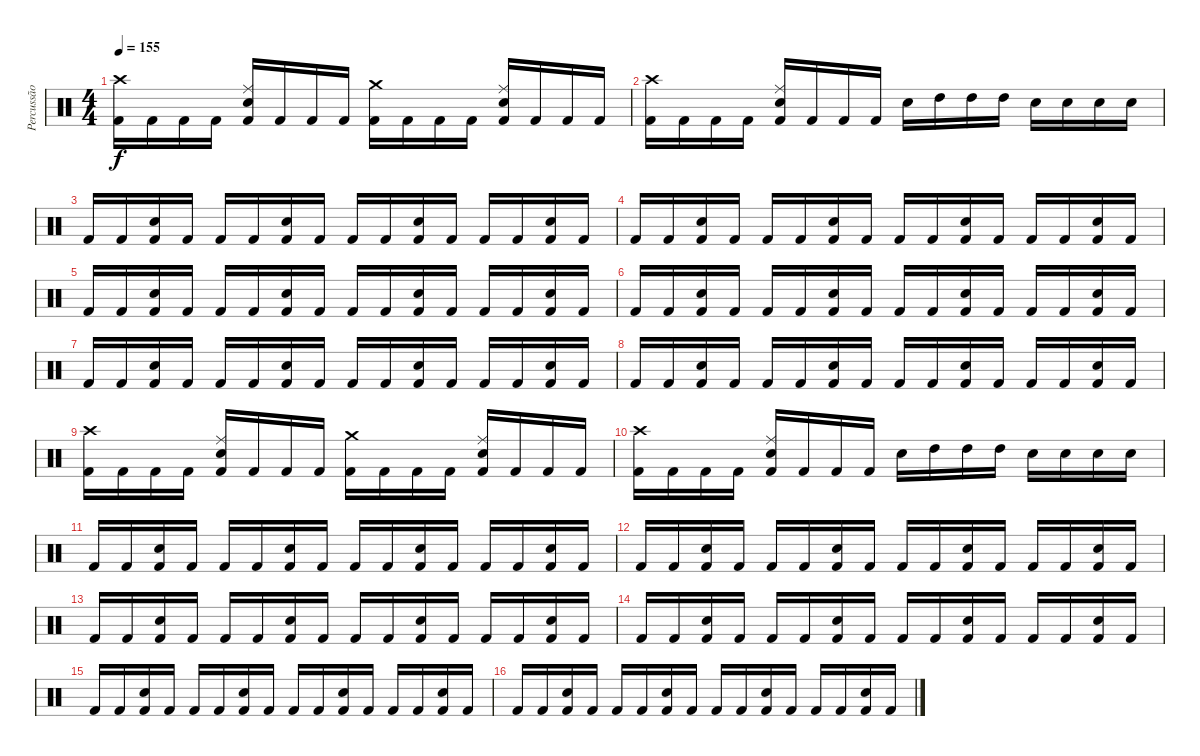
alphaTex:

\track ("Percussão" "Percussão") {instrument percussion}
\staff {score}
\articulation defaults
\ts (4 4)
\tempo 155
\clef neutral
\ks c
("Kick (hit) 2" "Crash high (hit)").16{dy f} "Kick (hit) 2".16 "Kick (hit) 2".16 "Kick (hit) 2".16 ("Kick (hit) 2" "Ride (middle)" "Snare (hit) 2").16 "Kick (hit) 2".16 "Kick (hit) 2".16 "Kick (hit) 2".16 ("Kick (hit) 2" "Crash medium (hit)").16 "Kick (hit) 2".16 "Kick (hit) 2".16 "Kick (hit) 2".16 ("Kick (hit) 2" "Ride (middle)" "Snare (hit) 2").16 "Kick (hit) 2".16 "Kick (hit) 2".16 "Kick (hit) 2".16 |
("Kick (hit) 2" "Crash high (hit)").16 "Kick (hit) 2".16 "Kick (hit) 2".16 "Kick (hit) 2".16 ("Kick (hit) 2" "Snare (hit) 2" "Ride (middle)").16 "Kick (hit) 2".16 "Kick (hit) 2".16 "Kick (hit) 2".16 "Snare (hit) 2".16 "High Tom (hit)".16 "High Tom (hit)".16 "High Tom (hit)".16 "Snare (hit) 2".16 "Snare (hit) 2".16 "Snare (hit) 2".16 "Snare (hit) 2".16 |
"Kick (hit) 2".16 "Kick (hit) 2".16 ("Kick (hit) 2" "Snare (hit) 2").16 "Kick (hit) 2".16 "Kick (hit) 2".16 "Kick (hit) 2".16 ("Kick (hit) 2" "Snare (hit) 2").16 "Kick (hit) 2".16 "Kick (hit) 2".16 "Kick (hit) 2".16 ("Kick (hit) 2" "Snare (hit) 2").16 "Kick (hit) 2".16 "Kick (hit) 2".16 "Kick (hit) 2".16 ("Kick (hit) 2" "Snare (hit) 2").16 "Kick (hit) 2".16 |
"Kick (hit) 2".16 "Kick (hit) 2".16 ("Kick (hit) 2" "Snare (hit) 2").16 "Kick (hit) 2".16 "Kick (hit) 2".16 "Kick (hit) 2".16 ("Kick (hit) 2" "Snare (hit) 2").16 "Kick (hit) 2".16 "Kick (hit) 2".16 "Kick (hit) 2".16 ("Kick (hit) 2" "Snare (hit) 2").16 "Kick (hit) 2".16 "Kick (hit) 2".16 "Kick (hit) 2".16 ("Kick (hit) 2" "Snare (hit) 2").16 "Kick (hit) 2".16 |
"Kick (hit) 2".16 "Kick (hit) 2".16 ("Kick (hit) 2" "Snare (hit) 2").16 "Kick (hit) 2".16 "Kick (hit) 2".16 "Kick (hit) 2".16 ("Kick (hit) 2" "Snare (hit) 2").16 "Kick (hit) 2".16 "Kick (hit) 2".16 "Kick (hit) 2".16 ("Kick (hit) 2" "Snare (hit) 2").16 "Kick (hit) 2".16 "Kick (hit) 2".16 "Kick (hit) 2".16 ("Kick (hit) 2" "Snare (hit) 2").16 "Kick (hit) 2".16 |
"Kick (hit) 2".16 "Kick (hit) 2".16 ("Kick (hit) 2" "Snare (hit) 2").16 "Kick (hit) 2".16 "Kick (hit) 2".16 "Kick (hit) 2".16 ("Kick (hit) 2" "Snare (hit) 2").16 "Kick (hit) 2".16 "Kick (hit) 2".16 "Kick (hit) 2".16 ("Kick (hit) 2" "Snare (hit) 2").16 "Kick (hit) 2".16 "Kick (hit) 2".16 "Kick (hit) 2".16 ("Kick (hit) 2" "Snare (hit) 2").16 "Kick (hit) 2".16 |
"Kick (hit) 2".16 "Kick (hit) 2".16 ("Kick (hit) 2" "Snare (hit) 2").16 "Kick (hit) 2".16 "Kick (hit) 2".16 "Kick (hit) 2".16 ("Kick (hit) 2" "Snare (hit) 2").16 "Kick (hit) 2".16 "Kick (hit) 2".16 "Kick (hit) 2".16 ("Kick (hit) 2" "Snare (hit) 2").16 "Kick (hit) 2".16 "Kick (hit) 2".16 "Kick (hit) 2".16 ("Kick (hit) 2" "Snare (hit) 2").16 "Kick (hit) 2".16 |
"Kick (hit) 2".16 "Kick (hit) 2".16 ("Kick (hit) 2" "Snare (hit) 2").16 "Kick (hit) 2".16 "Kick (hit) 2".16 "Kick (hit) 2".16 ("Kick (hit) 2" "Snare (hit) 2").16 "Kick (hit) 2".16 "Kick (hit) 2".16 "Kick (hit) 2".16 ("Kick (hit) 2" "Snare (hit) 2").16 "Kick (hit) 2".16 "Kick (hit) 2".16 "Kick (hit) 2".16 ("Kick (hit) 2" "Snare (hit) 2").16 "Kick (hit) 2".16 |
("Kick (hit) 2" "Crash high (hit)").16 "Kick (hit) 2".16 "Kick (hit) 2".16 "Kick (hit) 2".16 ("Kick (hit) 2" "Ride (middle)" "Snare (hit) 2").16 "Kick (hit) 2".16 "Kick (hit) 2".16 "Kick (hit) 2".16 ("Kick (hit) 2" "Crash medium (hit)").16 "Kick (hit) 2".16 "Kick (hit) 2".16 "Kick (hit) 2".16 ("Kick (hit) 2" "Ride (middle)" "Snare (hit) 2").16 "Kick (hit) 2".16 "Kick (hit) 2".16 "Kick (hit) 2".16 |
("Kick (hit) 2" "Crash high (hit)").16 "Kick (hit) 2".16 "Kick (hit) 2".16 "Kick (hit) 2".16 ("Kick (hit) 2" "Snare (hit) 2" "Ride (middle)").16 "Kick (hit) 2".16 "Kick (hit) 2".16 "Kick (hit) 2".16 "Snare (hit) 2".16 "High Tom (hit)".16 "High Tom (hit)".16 "High Tom (hit)".16 "Snare (hit) 2".16 "Snare (hit) 2".16 "Snare (hit) 2".16 "Snare (hit) 2".16 |
"Kick (hit) 2".16 "Kick (hit) 2".16 ("Kick (hit) 2" "Snare (hit) 2").16 "Kick (hit) 2".16 "Kick (hit) 2".16 "Kick (hit) 2".16 ("Kick (hit) 2" "Snare (hit) 2").16 "Kick (hit) 2".16 "Kick (hit) 2".16 "Kick (hit) 2".16 ("Kick (hit) 2" "Snare (hit) 2").16 "Kick (hit) 2".16 "Kick (hit) 2".16 "Kick (hit) 2".16 ("Kick (hit) 2" "Snare (hit) 2").16 "Kick (hit) 2".16 |
"Kick (hit) 2".16 "Kick (hit) 2".16 ("Kick (hit) 2" "Snare (hit) 2").16 "Kick (hit) 2".16 "Kick (hit) 2".16 "Kick (hit) 2".16 ("Kick (hit) 2" "Snare (hit) 2").16 "Kick (hit) 2".16 "Kick (hit) 2".16 "Kick (hit) 2".16 ("Kick (hit) 2" "Snare (hit) 2").16 "Kick (hit) 2".16 "Kick (hit) 2".16 "Kick (hit) 2".16 ("Kick (hit) 2" "Snare (hit) 2").16 "Kick (hit) 2".16 |
"Kick (hit) 2".16 "Kick (hit) 2".16 ("Kick (hit) 2" "Snare (hit) 2").16 "Kick (hit) 2".16 "Kick (hit) 2".16 "Kick (hit) 2".16 ("Kick (hit) 2" "Snare (hit) 2").16 "Kick (hit) 2".16 "Kick (hit) 2".16 "Kick (hit) 2".16 ("Kick (hit) 2" "Snare (hit) 2").16 "Kick (hit) 2".16 "Kick (hit) 2".16 "Kick (hit) 2".16 ("Kick (hit) 2" "Snare (hit) 2").16 "Kick (hit) 2".16 |
"Kick (hit) 2".16 "Kick (hit) 2".16 ("Kick (hit) 2" "Snare (hit) 2").16 "Kick (hit) 2".16 "Kick (hit) 2".16 "Kick (hit) 2".16 ("Kick (hit) 2" "Snare (hit) 2").16 "Kick (hit) 2".16 "Kick (hit) 2".16 "Kick (hit) 2".16 ("Kick (hit) 2" "Snare (hit) 2").16 "Kick (hit) 2".16 "Kick (hit) 2".16 "Kick (hit) 2".16 ("Kick (hit) 2" "Snare (hit) 2").16 "Kick (hit) 2".16 |
"Kick (hit) 2".16 "Kick (hit) 2".16 ("Kick (hit) 2" "Snare (hit) 2").16 "Kick (hit) 2".16 "Kick (hit) 2".16 "Kick (hit) 2".16 ("Kick (hit) 2" "Snare (hit) 2").16 "Kick (hit) 2".16 "Kick (hit) 2".16 "Kick (hit) 2".16 ("Kick (hit) 2" "Snare (hit) 2").16 "Kick (hit) 2".16 "Kick (hit) 2".16 "Kick (hit) 2".16 ("Kick (hit) 2" "Snare (hit) 2").16 "Kick (hit) 2".16 |
"Kick (hit) 2".16 "Kick (hit) 2".16 ("Kick (hit) 2" "Snare (hit) 2").16 "Kick (hit) 2".16 "Kick (hit) 2".16 "Kick (hit) 2".16 ("Kick (hit) 2" "Snare (hit) 2").16 "Kick (hit) 2".16 "Kick (hit) 2".16 "Kick (hit) 2".16 ("Kick (hit) 2" "Snare (hit) 2").16 "Kick (hit) 2".16 "Kick (hit) 2".16 "Kick (hit) 2".16 ("Kick (hit) 2" "Snare (hit) 2").16 "Kick (hit) 2".16
